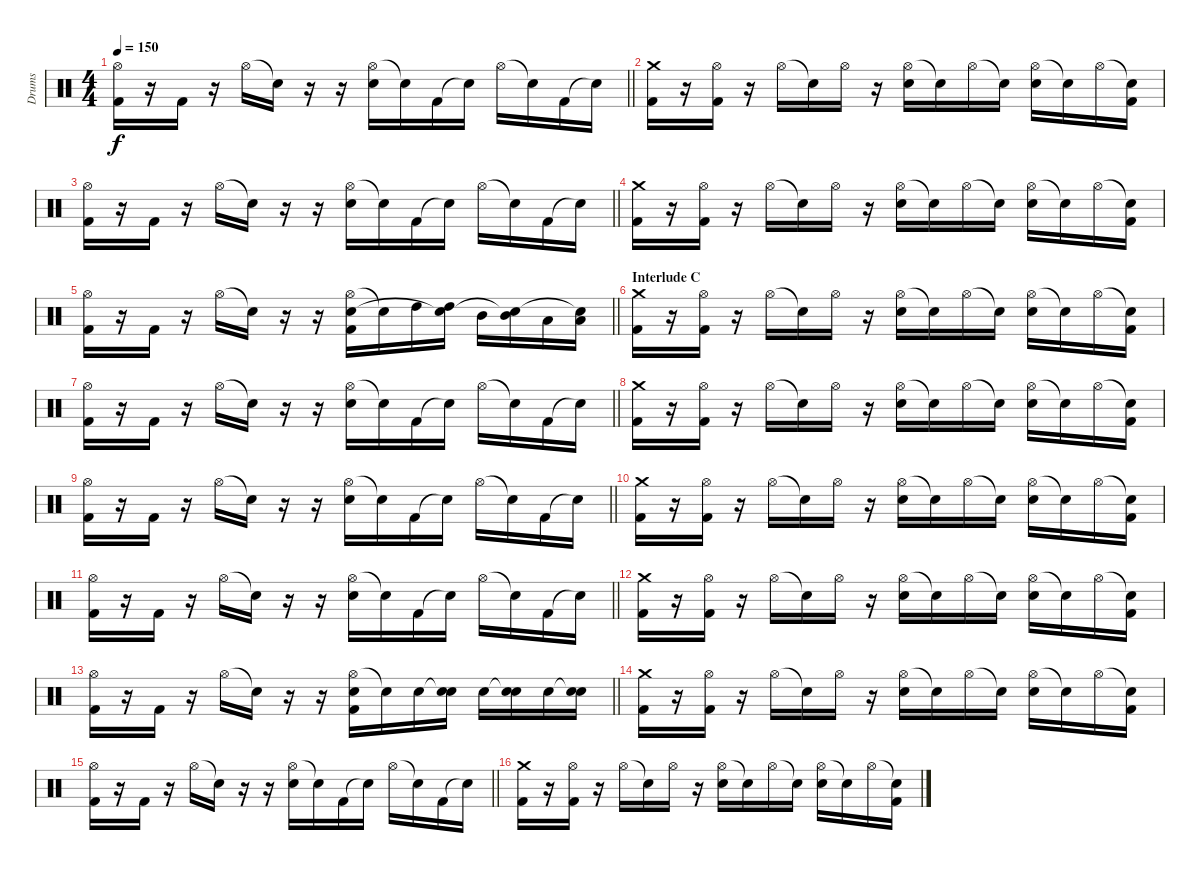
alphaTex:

\track ("Drums" "Drums") {instrument percussion}
\staff {score}
\articulation defaults
\ts (4 4)
\tempo 150
\clef neutral
\barLineRight lightlight
\ks c
("Hi-Hat (open)" "Kick (hit) 2").16{dy f} r.16 "Kick (hit) 2".16 r.16 "Hi-Hat (open)".16 "Snare (hit)"{t}.16 r.16 r.16 ("Hi-Hat (open)" "Snare (hit) 2").16 "Snare (hit)"{t}.16 "Kick (hit) 2".16 "Snare (hit)"{t}.16 "Hi-Hat (open)".16 "Snare (hit)"{t}.16 "Kick (hit) 2".16 "Snare (hit)"{t}.16 |
("Crash medium (hit)" "Kick (hit) 2").16 r.16 ("Hi-Hat (open)" "Kick (hit) 2").16 r.16 "Hi-Hat (open)".16 "Snare (hit)"{t}.16 "Hi-Hat (open)".16 r.16 ("Hi-Hat (open)" "Snare (hit) 2").16 "Snare (hit)"{t}.16 "Hi-Hat (open)".16 "Snare (hit)"{t}.16 ("Hi-Hat (open)" "Snare (hit) 2").16 "Snare (hit)"{t}.16 "Hi-Hat (open)".16 ("Snare (hit)"{t} "Kick (hit) 2").16 |
\barLineRight lightlight
("Hi-Hat (open)" "Kick (hit) 2").16 r.16 "Kick (hit) 2".16 r.16 "Hi-Hat (open)".16 "Snare (hit)"{t}.16 r.16 r.16 ("Hi-Hat (open)" "Snare (hit) 2").16 "Snare (hit)"{t}.16 "Kick (hit) 2".16 "Snare (hit)"{t}.16 "Hi-Hat (open)".16 "Snare (hit)"{t}.16 "Kick (hit) 2".16 "Snare (hit)"{t}.16 |
("Crash medium (hit)" "Kick (hit) 2").16 r.16 ("Hi-Hat (open)" "Kick (hit) 2").16 r.16 "Hi-Hat (open)".16 "Snare (hit)"{t}.16 "Hi-Hat (open)".16 r.16 ("Hi-Hat (open)" "Snare (hit) 2").16 "Snare (hit)"{t}.16 "Hi-Hat (open)".16 "Snare (hit)"{t}.16 ("Hi-Hat (open)" "Snare (hit) 2").16 "Snare (hit)"{t}.16 "Hi-Hat (open)".16 ("Snare (hit)"{t} "Kick (hit) 2").16 |
\barLineRight lightlight
("Hi-Hat (open)" "Kick (hit) 2").16 r.16 "Kick (hit) 2".16 r.16 "Hi-Hat (open)".16 "Snare (hit)"{t}.16 r.16 r.16 ("Hi-Hat (open)" "Snare (hit) 2" "Kick (hit) 2").16 "Snare (hit)"{t}.16 "High Tom (hit)".16 ("High Tom (hit)" "Snare (hit)"{t}).16 "Mid Tom (hit)".16 ("Mid Tom (hit)" "Snare (hit)"{t}).16 "Low Tom (hit)".16 ("Low Tom (hit)" "Snare (hit)"{t}).16 |
\section ("" "Interlude C")
("Crash medium (hit)" "Kick (hit) 2").16 r.16 ("Hi-Hat (open)" "Kick (hit) 2").16 r.16 "Hi-Hat (open)".16 "Snare (hit)"{t}.16 "Hi-Hat (open)".16 r.16 ("Hi-Hat (open)" "Snare (hit) 2").16 "Snare (hit)"{t}.16 "Hi-Hat (open)".16 "Snare (hit)"{t}.16 ("Hi-Hat (open)" "Snare (hit) 2").16 "Snare (hit)"{t}.16 "Hi-Hat (open)".16 ("Snare (hit)"{t} "Kick (hit) 2").16 |
\barLineRight lightlight
("Hi-Hat (open)" "Kick (hit) 2").16 r.16 "Kick (hit) 2".16 r.16 "Hi-Hat (open)".16 "Snare (hit)"{t}.16 r.16 r.16 ("Hi-Hat (open)" "Snare (hit) 2").16 "Snare (hit)"{t}.16 "Kick (hit) 2".16 "Snare (hit)"{t}.16 "Hi-Hat (open)".16 "Snare (hit)"{t}.16 "Kick (hit) 2".16 "Snare (hit)"{t}.16 |
("Crash medium (hit)" "Kick (hit) 2").16 r.16 ("Hi-Hat (open)" "Kick (hit) 2").16 r.16 "Hi-Hat (open)".16 "Snare (hit)"{t}.16 "Hi-Hat (open)".16 r.16 ("Hi-Hat (open)" "Snare (hit) 2").16 "Snare (hit)"{t}.16 "Hi-Hat (open)".16 "Snare (hit)"{t}.16 ("Hi-Hat (open)" "Snare (hit) 2").16 "Snare (hit)"{t}.16 "Hi-Hat (open)".16 ("Snare (hit)"{t} "Kick (hit) 2").16 |
\barLineRight lightlight
("Hi-Hat (open)" "Kick (hit) 2").16 r.16 "Kick (hit) 2".16 r.16 "Hi-Hat (open)".16 "Snare (hit)"{t}.16 r.16 r.16 ("Hi-Hat (open)" "Snare (hit) 2").16 "Snare (hit)"{t}.16 "Kick (hit) 2".16 "Snare (hit)"{t}.16 "Hi-Hat (open)".16 "Snare (hit)"{t}.16 "Kick (hit) 2".16 "Snare (hit)"{t}.16 |
("Crash medium (hit)" "Kick (hit) 2").16 r.16 ("Hi-Hat (open)" "Kick (hit) 2").16 r.16 "Hi-Hat (open)".16 "Snare (hit)"{t}.16 "Hi-Hat (open)".16 r.16 ("Hi-Hat (open)" "Snare (hit) 2").16 "Snare (hit)"{t}.16 "Hi-Hat (open)".16 "Snare (hit)"{t}.16 ("Hi-Hat (open)" "Snare (hit) 2").16 "Snare (hit)"{t}.16 "Hi-Hat (open)".16 ("Snare (hit)"{t} "Kick (hit) 2").16 |
\barLineRight lightlight
("Hi-Hat (open)" "Kick (hit) 2").16 r.16 "Kick (hit) 2".16 r.16 "Hi-Hat (open)".16 "Snare (hit)"{t}.16 r.16 r.16 ("Hi-Hat (open)" "Snare (hit) 2").16 "Snare (hit)"{t}.16 "Kick (hit) 2".16 "Snare (hit)"{t}.16 "Hi-Hat (open)".16 "Snare (hit)"{t}.16 "Kick (hit) 2".16 "Snare (hit)"{t}.16 |
("Crash medium (hit)" "Kick (hit) 2").16 r.16 ("Hi-Hat (open)" "Kick (hit) 2").16 r.16 "Hi-Hat (open)".16 "Snare (hit)"{t}.16 "Hi-Hat (open)".16 r.16 ("Hi-Hat (open)" "Snare (hit) 2").16 "Snare (hit)"{t}.16 "Hi-Hat (open)".16 "Snare (hit)"{t}.16 ("Hi-Hat (open)" "Snare (hit) 2").16 "Snare (hit)"{t}.16 "Hi-Hat (open)".16 ("Snare (hit)"{t} "Kick (hit) 2").16 |
\barLineRight lightlight
("Hi-Hat (open)" "Kick (hit) 2").16 r.16 "Kick (hit) 2".16 r.16 "Hi-Hat (open)".16 "Snare (hit)"{t}.16 r.16 r.16 ("Hi-Hat (open)" "Snare (hit) 2" "Kick (hit) 2").16 "Snare (hit)"{t}.16 "Snare (hit) 2".16 ("Snare (hit)"{t} "Snare (hit) 2").16 "Snare (hit) 2".16 ("Snare (hit)"{t} "Snare (hit) 2").16 "Snare (hit) 2".16 ("Snare (hit)"{t} "Snare (hit) 2").16 |
("Crash medium (hit)" "Kick (hit) 2").16 r.16 ("Hi-Hat (open)" "Kick (hit) 2").16 r.16 "Hi-Hat (open)".16 "Snare (hit)"{t}.16 "Hi-Hat (open)".16 r.16 ("Hi-Hat (open)" "Snare (hit) 2").16 "Snare (hit)"{t}.16 "Hi-Hat (open)".16 "Snare (hit)"{t}.16 ("Hi-Hat (open)" "Snare (hit) 2").16 "Snare (hit)"{t}.16 "Hi-Hat (open)".16 ("Snare (hit)"{t} "Kick (hit) 2").16 |
\barLineRight lightlight
("Hi-Hat (open)" "Kick (hit) 2").16 r.16 "Kick (hit) 2".16 r.16 "Hi-Hat (open)".16 "Snare (hit)"{t}.16 r.16 r.16 ("Hi-Hat (open)" "Snare (hit) 2").16 "Snare (hit)"{t}.16 "Kick (hit) 2".16 "Snare (hit)"{t}.16 "Hi-Hat (open)".16 "Snare (hit)"{t}.16 "Kick (hit) 2".16 "Snare (hit)"{t}.16 |
("Crash medium (hit)" "Kick (hit) 2").16 r.16 ("Hi-Hat (open)" "Kick (hit) 2").16 r.16 "Hi-Hat (open)".16 "Snare (hit)"{t}.16 "Hi-Hat (open)".16 r.16 ("Hi-Hat (open)" "Snare (hit) 2").16 "Snare (hit)"{t}.16 "Hi-Hat (open)".16 "Snare (hit)"{t}.16 ("Hi-Hat (open)" "Snare (hit) 2").16 "Snare (hit)"{t}.16 "Hi-Hat (open)".16 ("Snare (hit)"{t} "Kick (hit) 2").16
